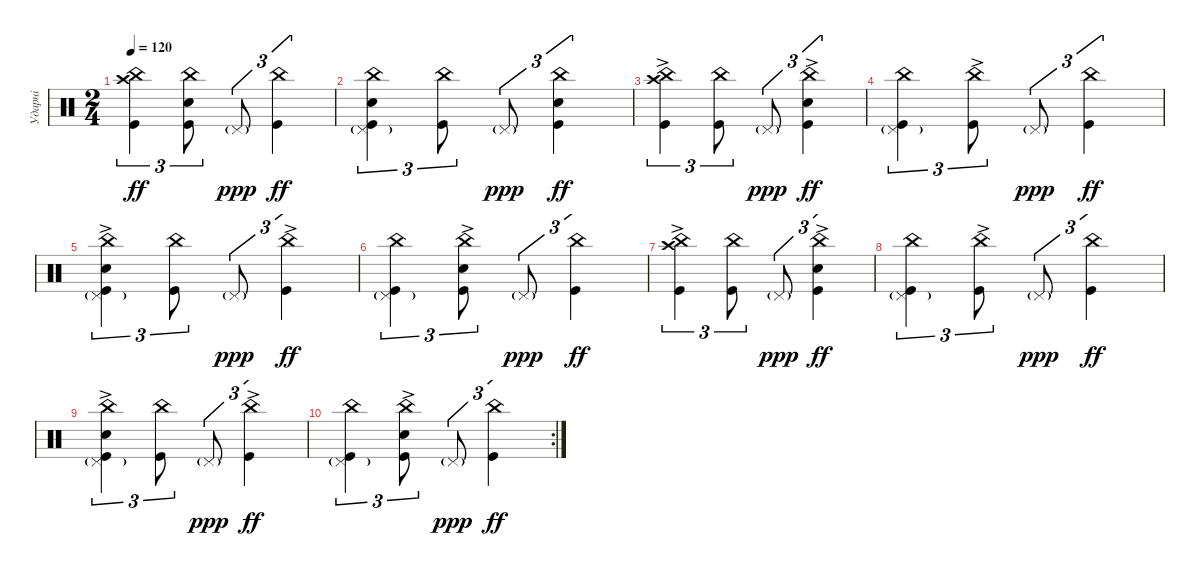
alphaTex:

\track ("Ударні" "Ударні") {instrument percussion}
\staff {score}
\articulation defaults
\ts (2 4)
\tempo 120
\clef neutral
\ks c
("China (hit)" "Crash high (hit)" "Kick (hit)").4{tu (3 2) dy ff} ("China (hit)" "Snare (hit) 2" "Kick (hit)").8{tu (3 2)} "Pedal Hi-Hat (hit)"{g}.8{tu (3 2) dy ppp} ("China (hit)" "Kick (hit)").4{tu (3 2) dy ff} |
("China (hit)" "Pedal Hi-Hat (hit)"{g} "Snare (hit) 2" "Kick (hit)").4{tu (3 2)} ("China (hit)" "Kick (hit)").8{tu (3 2)} "Pedal Hi-Hat (hit)"{g}.8{tu (3 2) dy ppp} ("China (hit)" "Snare (hit) 2" "Kick (hit)").4{tu (3 2) dy ff} |
("China (hit)"{ac} "Crash high (hit)" "Kick (hit)").4{tu (3 2)} ("China (hit)" "Kick (hit)").8{tu (3 2)} "Pedal Hi-Hat (hit)"{g}.8{tu (3 2) dy ppp} ("China (hit)"{ac} "Snare (hit) 2" "Kick (hit)").4{tu (3 2) dy ff} |
("China (hit)" "Pedal Hi-Hat (hit)"{g} "Kick (hit)").4{tu (3 2)} ("China (hit)"{ac} "Kick (hit)").8{tu (3 2)} "Pedal Hi-Hat (hit)"{g}.8{tu (3 2) dy ppp} ("China (hit)" "Kick (hit)").4{tu (3 2) dy ff} |
("China (hit)"{ac} "Pedal Hi-Hat (hit)"{g} "Snare (hit) 2" "Kick (hit)").4{tu (3 2)} ("China (hit)" "Kick (hit)").8{tu (3 2)} "Pedal Hi-Hat (hit)"{g}.8{tu (3 2) dy ppp} ("China (hit)"{ac} "Kick (hit)").4{tu (3 2) dy ff} |
("China (hit)" "Pedal Hi-Hat (hit)"{g} "Kick (hit)").4{tu (3 2)} ("China (hit)"{ac} "Snare (hit) 2" "Kick (hit)").8{tu (3 2)} "Pedal Hi-Hat (hit)"{g}.8{tu (3 2) dy ppp} ("China (hit)" "Kick (hit)").4{tu (3 2) dy ff} |
("China (hit)"{ac} "Crash high (hit)" "Kick (hit)").4{tu (3 2)} ("China (hit)" "Kick (hit)").8{tu (3 2)} "Pedal Hi-Hat (hit)"{g}.8{tu (3 2) dy ppp} ("China (hit)"{ac} "Snare (hit) 2" "Kick (hit)").4{tu (3 2) dy ff} |
("China (hit)" "Pedal Hi-Hat (hit)"{g} "Kick (hit)").4{tu (3 2)} ("China (hit)"{ac} "Kick (hit)").8{tu (3 2)} "Pedal Hi-Hat (hit)"{g}.8{tu (3 2) dy ppp} ("China (hit)" "Kick (hit)").4{tu (3 2) dy ff} |
("China (hit)"{ac} "Pedal Hi-Hat (hit)"{g} "Snare (hit) 2" "Kick (hit)").4{tu (3 2)} ("China (hit)" "Kick (hit)").8{tu (3 2)} "Pedal Hi-Hat (hit)"{g}.8{tu (3 2) dy ppp} ("China (hit)"{ac} "Kick (hit)").4{tu (3 2) dy ff} |
\rc 2
("China (hit)" "Pedal Hi-Hat (hit)"{g} "Kick (hit)").4{tu (3 2)} ("China (hit)"{ac} "Snare (hit) 2" "Kick (hit)").8{tu (3 2)} "Pedal Hi-Hat (hit)"{g}.8{tu (3 2) dy ppp} ("China (hit)" "Kick (hit)").4{tu (3 2) dy ff}
